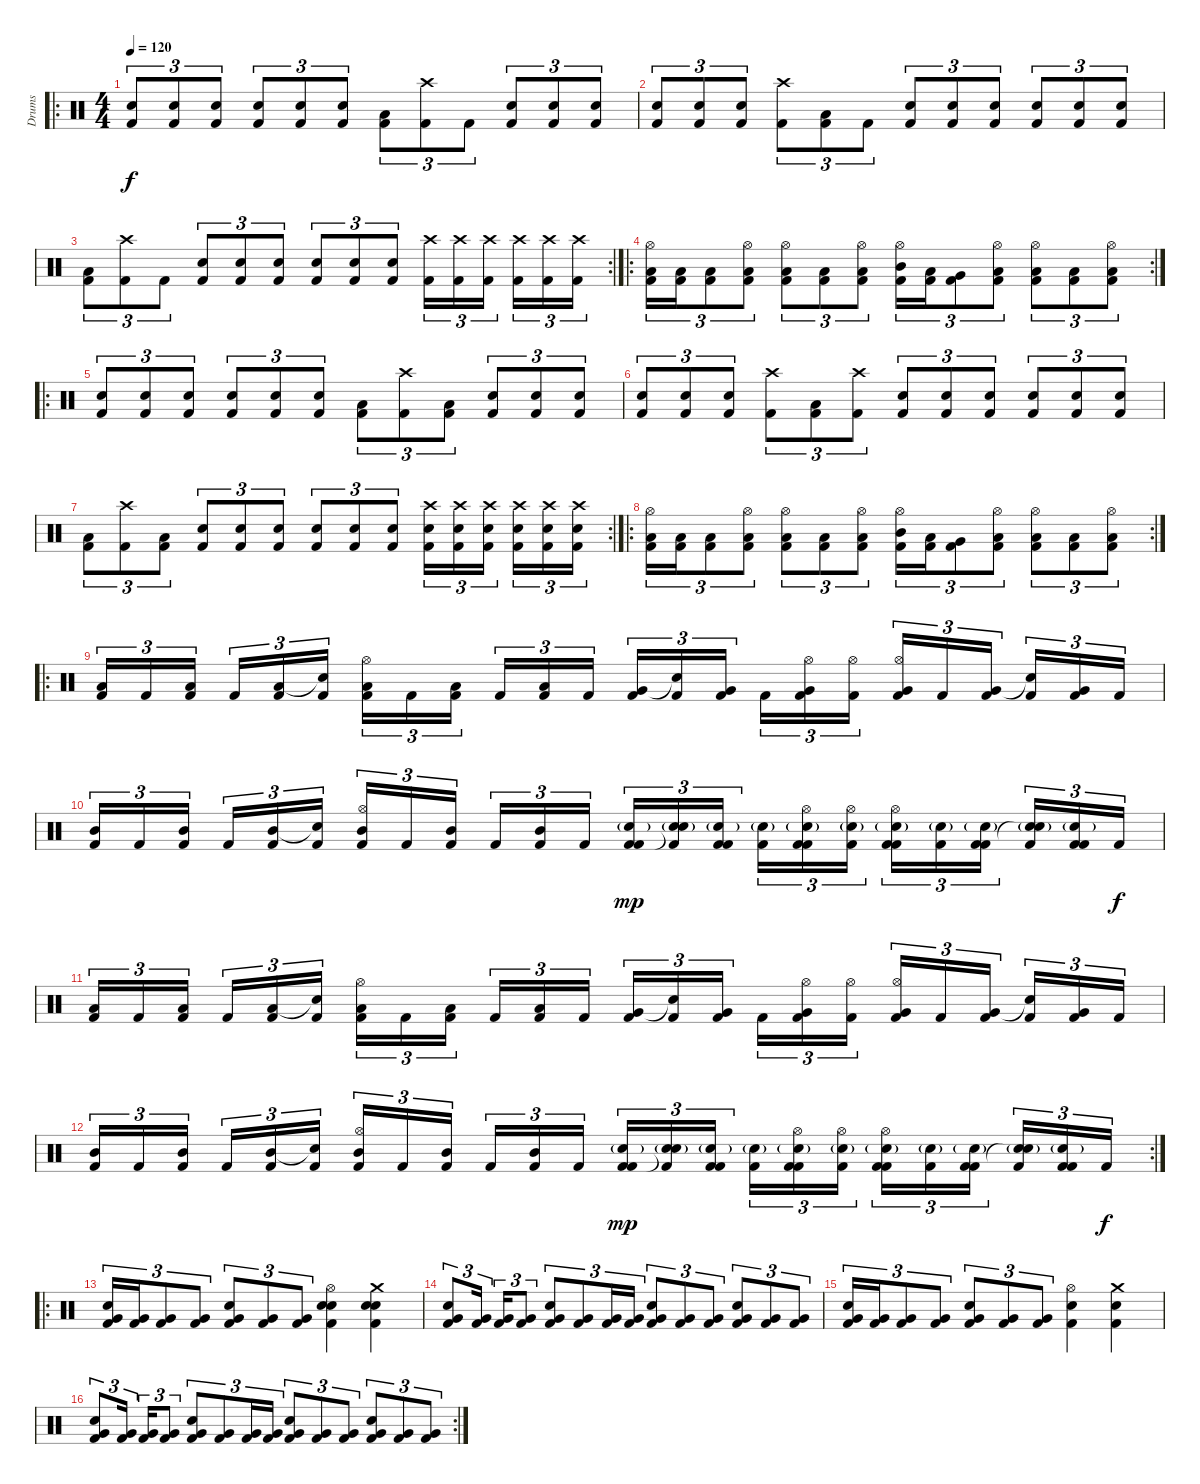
\track ("Drums" "Drums") {instrument percussion}
\staff {score}
\articulation defaults
\ro
\ts (4 4)
\tempo 120
\clef neutral
\ks c
("Snare (hit) 2" "Kick (hit) 2").8{tu (3 2) dy f} ("Snare (hit) 2" "Kick (hit) 2").8{tu (3 2)} ("Snare (hit) 2" "Kick (hit) 2").8{tu (3 2)} ("Snare (hit) 2" "Kick (hit) 2").8{tu (3 2)} ("Snare (hit) 2" "Kick (hit) 2").8{tu (3 2)} ("Snare (hit) 2" "Kick (hit) 2").8{tu (3 2)} ("Low Tom (hit)" "Kick (hit) 2").8{tu (3 2)} ("Crash high (hit)" "Kick (hit) 2").8{tu (3 2)} "Kick (hit) 2".8{tu (3 2)} ("Snare (hit) 2" "Kick (hit) 2").8{tu (3 2)} ("Snare (hit) 2" "Kick (hit) 2").8{tu (3 2)} ("Snare (hit) 2" "Kick (hit) 2").8{tu (3 2)} |
("Snare (hit) 2" "Kick (hit) 2").8{tu (3 2)} ("Snare (hit) 2" "Kick (hit) 2").8{tu (3 2)} ("Snare (hit) 2" "Kick (hit) 2").8{tu (3 2)} ("Crash high (hit)" "Kick (hit) 2").8{tu (3 2)} ("Low Tom (hit)" "Kick (hit) 2").8{tu (3 2)} "Kick (hit) 2".8{tu (3 2)} ("Snare (hit) 2" "Kick (hit) 2").8{tu (3 2)} ("Snare (hit) 2" "Kick (hit) 2").8{tu (3 2)} ("Snare (hit) 2" "Kick (hit) 2").8{tu (3 2)} ("Snare (hit) 2" "Kick (hit) 2").8{tu (3 2)} ("Snare (hit) 2" "Kick (hit) 2").8{tu (3 2)} ("Snare (hit) 2" "Kick (hit) 2").8{tu (3 2)} |
\rc 2
("Low Tom (hit)" "Kick (hit) 2").8{tu (3 2)} ("Crash high (hit)" "Kick (hit) 2").8{tu (3 2)} "Kick (hit) 2".8{tu (3 2)} ("Snare (hit) 2" "Kick (hit) 2").8{tu (3 2)} ("Snare (hit) 2" "Kick (hit) 2").8{tu (3 2)} ("Snare (hit) 2" "Kick (hit) 2").8{tu (3 2)} ("Snare (hit) 2" "Kick (hit) 2").8{tu (3 2)} ("Snare (hit) 2" "Kick (hit) 2").8{tu (3 2)} ("Snare (hit) 2" "Kick (hit) 2").8{tu (3 2)} ("Crash high (hit)" "Kick (hit) 2").16{tu (3 2)} ("Crash high (hit)" "Kick (hit) 2").16{tu (3 2)} ("Crash high (hit)" "Kick (hit) 2").16{tu (3 2)} ("Crash high (hit)" "Kick (hit) 2").16{tu (3 2)} ("Crash high (hit)" "Kick (hit) 2").16{tu (3 2)} ("Crash high (hit)" "Kick (hit) 2").16{tu (3 2)} |
\ro
\rc 2
("Low Tom (hit)" "Hi-Hat (open)" "Kick (hit) 2").16{tu (3 2)} ("Low Tom (hit)" "Kick (hit) 2").16{tu (3 2)} ("Low Tom (hit)" "Kick (hit) 2").8{tu (3 2)} ("Low Tom (hit)" "Hi-Hat (open)" "Kick (hit) 2").8{tu (3 2)} ("Low Tom (hit)" "Hi-Hat (open)" "Kick (hit) 2").8{tu (3 2)} ("Low Tom (hit)" "Kick (hit) 2").8{tu (3 2)} ("Low Tom (hit)" "Hi-Hat (open)" "Kick (hit) 2").8{tu (3 2)} ("Mid Tom (hit)" "Hi-Hat (open)" "Kick (hit) 2").16{tu (3 2)} ("Low Tom (hit)" "Kick (hit) 2").16{tu (3 2)} ("Very Low Tom (hit)" "Kick (hit) 2").8{tu (3 2)} ("Low Tom (hit)" "Hi-Hat (open)" "Kick (hit) 2").8{tu (3 2)} ("Low Tom (hit)" "Hi-Hat (open)" "Kick (hit) 2").8{tu (3 2)} ("Low Tom (hit)" "Kick (hit) 2").8{tu (3 2)} ("Low Tom (hit)" "Hi-Hat (open)" "Kick (hit) 2").8{tu (3 2)} |
\ro
("Snare (hit) 2" "Kick (hit) 2").8{tu (3 2)} ("Snare (hit) 2" "Kick (hit) 2").8{tu (3 2)} ("Snare (hit) 2" "Kick (hit) 2").8{tu (3 2)} ("Snare (hit) 2" "Kick (hit) 2").8{tu (3 2)} ("Snare (hit) 2" "Kick (hit) 2").8{tu (3 2)} ("Snare (hit) 2" "Kick (hit) 2").8{tu (3 2)} ("Low Tom (hit)" "Kick (hit) 2").8{tu (3 2)} ("Crash high (hit)" "Kick (hit) 2").8{tu (3 2)} ("Low Tom (hit)" "Kick (hit) 2").8{tu (3 2)} ("Snare (hit) 2" "Kick (hit) 2").8{tu (3 2)} ("Snare (hit) 2" "Kick (hit) 2").8{tu (3 2)} ("Snare (hit) 2" "Kick (hit) 2").8{tu (3 2)} |
("Snare (hit) 2" "Kick (hit) 2").8{tu (3 2)} ("Snare (hit) 2" "Kick (hit) 2").8{tu (3 2)} ("Snare (hit) 2" "Kick (hit) 2").8{tu (3 2)} ("Crash high (hit)" "Kick (hit) 2").8{tu (3 2)} ("Low Tom (hit)" "Kick (hit) 2").8{tu (3 2)} ("Crash high (hit)" "Kick (hit) 2").8{tu (3 2)} ("Snare (hit) 2" "Kick (hit) 2").8{tu (3 2)} ("Snare (hit) 2" "Kick (hit) 2").8{tu (3 2)} ("Snare (hit) 2" "Kick (hit) 2").8{tu (3 2)} ("Snare (hit) 2" "Kick (hit) 2").8{tu (3 2)} ("Snare (hit) 2" "Kick (hit) 2").8{tu (3 2)} ("Snare (hit) 2" "Kick (hit) 2").8{tu (3 2)} |
\rc 2
("Low Tom (hit)" "Kick (hit) 2").8{tu (3 2)} ("Crash high (hit)" "Kick (hit) 2").8{tu (3 2)} ("Low Tom (hit)" "Kick (hit) 2").8{tu (3 2)} ("Snare (hit) 2" "Kick (hit) 2").8{tu (3 2)} ("Snare (hit) 2" "Kick (hit) 2").8{tu (3 2)} ("Snare (hit) 2" "Kick (hit) 2").8{tu (3 2)} ("Snare (hit) 2" "Kick (hit) 2").8{tu (3 2)} ("Snare (hit) 2" "Kick (hit) 2").8{tu (3 2)} ("Snare (hit) 2" "Kick (hit) 2").8{tu (3 2)} ("Crash high (hit)" "Snare (hit) 2" "Kick (hit) 2").16{tu (3 2)} ("Crash high (hit)" "Snare (hit) 2" "Kick (hit) 2").16{tu (3 2)} ("Crash high (hit)" "Snare (hit) 2" "Kick (hit) 2").16{tu (3 2)} ("Crash high (hit)" "Snare (hit) 2" "Kick (hit) 2").16{tu (3 2)} ("Crash high (hit)" "Snare (hit) 2" "Kick (hit) 2").16{tu (3 2)} ("Crash high (hit)" "Snare (hit) 2" "Kick (hit) 2").16{tu (3 2)} |
\ro
\rc 2
("Low Tom (hit)" "Hi-Hat (open)" "Kick (hit) 2").16{tu (3 2)} ("Low Tom (hit)" "Kick (hit) 2").16{tu (3 2)} ("Low Tom (hit)" "Kick (hit) 2").8{tu (3 2)} ("Low Tom (hit)" "Hi-Hat (open)" "Kick (hit) 2").8{tu (3 2)} ("Low Tom (hit)" "Hi-Hat (open)" "Kick (hit) 2").8{tu (3 2)} ("Low Tom (hit)" "Kick (hit) 2").8{tu (3 2)} ("Low Tom (hit)" "Hi-Hat (open)" "Kick (hit) 2").8{tu (3 2)} ("Mid Tom (hit)" "Hi-Hat (open)" "Kick (hit) 2").16{tu (3 2)} ("Low Tom (hit)" "Kick (hit) 2").16{tu (3 2)} ("Very Low Tom (hit)" "Kick (hit) 2").8{tu (3 2)} ("Low Tom (hit)" "Hi-Hat (open)" "Kick (hit) 2").8{tu (3 2)} ("Low Tom (hit)" "Hi-Hat (open)" "Kick (hit) 2").8{tu (3 2)} ("Low Tom (hit)" "Kick (hit) 2").8{tu (3 2)} ("Low Tom (hit)" "Hi-Hat (open)" "Kick (hit) 2").8{tu (3 2)} |
\ro
("Low Tom (hit)" "Kick (hit) 2").16{tu (3 2)} "Kick (hit) 2".16{tu (3 2)} ("Low Tom (hit)" "Kick (hit) 2").16{tu (3 2)} "Kick (hit) 2".16{tu (3 2)} ("Low Tom (hit)" "Kick (hit) 2").16{tu (3 2)} ("Snare (hit) 2"{t} "Kick (hit) 2").16{tu (3 2)} ("Low Tom (hit)" "Hi-Hat (open)" "Kick (hit) 2").16{tu (3 2)} "Kick (hit) 2".16{tu (3 2)} ("Low Tom (hit)" "Kick (hit) 2").16{tu (3 2)} "Kick (hit) 2".16{tu (3 2)} ("Low Tom (hit)" "Kick (hit) 2").16{tu (3 2)} "Kick (hit) 2".16{tu (3 2)} ("Very Low Tom (hit)" "Kick (hit) 2").16{tu (3 2)} ("Snare (hit) 2"{t} "Kick (hit) 2").16{tu (3 2)} ("Very Low Tom (hit)" "Kick (hit) 2").16{tu (3 2)} "Kick (hit) 2".16{tu (3 2)} ("Very Low Tom (hit)" "Hi-Hat (open)" "Kick (hit) 2").16{tu (3 2)} ("Hi-Hat (open)" "Kick (hit) 2").16{tu (3 2)} ("Very Low Tom (hit)" "Hi-Hat (open)" "Kick (hit) 2").16{tu (3 2)} "Kick (hit) 2".16{tu (3 2)} ("Very Low Tom (hit)" "Kick (hit) 2").16{tu (3 2)} ("Snare (hit)"{t} "Kick (hit) 2").16{tu (3 2)} ("Very Low Tom (hit)" "Kick (hit) 2").16{tu (3 2)} "Kick (hit) 2".16{tu (3 2)} |
("Mid Tom (hit)" "Kick (hit) 2").16{tu (3 2)} "Kick (hit) 2".16{tu (3 2)} ("Mid Tom (hit)" "Kick (hit) 2").16{tu (3 2)} "Kick (hit) 2".16{tu (3 2)} ("Mid Tom (hit)" "Kick (hit) 2").16{tu (3 2)} ("Snare (hit) 2"{t} "Kick (hit) 2").16{tu (3 2)} ("Mid Tom (hit)" "Hi-Hat (open)" "Kick (hit) 2").16{tu (3 2)} "Kick (hit) 2".16{tu (3 2)} ("Mid Tom (hit)" "Kick (hit) 2").16{tu (3 2)} "Kick (hit) 2".16{tu (3 2)} ("Mid Tom (hit)" "Kick (hit) 2").16{tu (3 2)} "Kick (hit) 2".16{tu (3 2)} ("Kick (hit) 2" "Snare (hit) 2"{g} "Kick (hit) 2").16{tu (3 2) dy mp} ("Snare (hit) 2"{t} "Snare (hit) 2"{g} "Kick (hit) 2").16{tu (3 2)} ("Kick (hit) 2" "Snare (hit) 2"{g} "Kick (hit) 2").16{tu (3 2)} ("Snare (hit) 2"{g} "Kick (hit) 2").16{tu (3 2)} ("Kick (hit) 2" "Snare (hit) 2"{g} "Hi-Hat (open)" "Kick (hit) 2").16{tu (3 2)} ("Snare (hit) 2"{g} "Hi-Hat (open)" "Kick (hit) 2").16{tu (3 2)} ("Kick (hit) 2" "Snare (hit) 2"{g} "Hi-Hat (open)" "Kick (hit) 2").16{tu (3 2)} ("Snare (hit) 2"{g} "Kick (hit) 2").16{tu (3 2)} ("Kick (hit) 2" "Snare (hit) 2"{g} "Kick (hit) 2").16{tu (3 2)} ("Snare (hit) 2"{t} "Snare (hit) 2"{g} "Kick (hit) 2").16{tu (3 2)} ("Kick (hit) 2" "Snare (hit) 2"{g} "Kick (hit) 2").16{tu (3 2)} "Kick (hit) 2".16{tu (3 2) dy f} |
("Low Tom (hit)" "Kick (hit) 2").16{tu (3 2)} "Kick (hit) 2".16{tu (3 2)} ("Low Tom (hit)" "Kick (hit) 2").16{tu (3 2)} "Kick (hit) 2".16{tu (3 2)} ("Low Tom (hit)" "Kick (hit) 2").16{tu (3 2)} ("Snare (hit) 2"{t} "Kick (hit) 2").16{tu (3 2)} ("Low Tom (hit)" "Hi-Hat (open)" "Kick (hit) 2").16{tu (3 2)} "Kick (hit) 2".16{tu (3 2)} ("Low Tom (hit)" "Kick (hit) 2").16{tu (3 2)} "Kick (hit) 2".16{tu (3 2)} ("Low Tom (hit)" "Kick (hit) 2").16{tu (3 2)} "Kick (hit) 2".16{tu (3 2)} ("Very Low Tom (hit)" "Kick (hit) 2").16{tu (3 2)} ("Snare (hit) 2"{t} "Kick (hit) 2").16{tu (3 2)} ("Very Low Tom (hit)" "Kick (hit) 2").16{tu (3 2)} "Kick (hit) 2".16{tu (3 2)} ("Very Low Tom (hit)" "Hi-Hat (open)" "Kick (hit) 2").16{tu (3 2)} ("Hi-Hat (open)" "Kick (hit) 2").16{tu (3 2)} ("Very Low Tom (hit)" "Hi-Hat (open)" "Kick (hit) 2").16{tu (3 2)} "Kick (hit) 2".16{tu (3 2)} ("Very Low Tom (hit)" "Kick (hit) 2").16{tu (3 2)} ("Snare (hit)"{t} "Kick (hit) 2").16{tu (3 2)} ("Very Low Tom (hit)" "Kick (hit) 2").16{tu (3 2)} "Kick (hit) 2".16{tu (3 2)} |
\rc 2
("Mid Tom (hit)" "Kick (hit) 2").16{tu (3 2)} "Kick (hit) 2".16{tu (3 2)} ("Mid Tom (hit)" "Kick (hit) 2").16{tu (3 2)} "Kick (hit) 2".16{tu (3 2)} ("Mid Tom (hit)" "Kick (hit) 2").16{tu (3 2)} ("Snare (hit) 2"{t} "Kick (hit) 2").16{tu (3 2)} ("Mid Tom (hit)" "Hi-Hat (open)" "Kick (hit) 2").16{tu (3 2)} "Kick (hit) 2".16{tu (3 2)} ("Mid Tom (hit)" "Kick (hit) 2").16{tu (3 2)} "Kick (hit) 2".16{tu (3 2)} ("Mid Tom (hit)" "Kick (hit) 2").16{tu (3 2)} "Kick (hit) 2".16{tu (3 2)} ("Kick (hit) 2" "Snare (hit) 2"{g} "Kick (hit) 2").16{tu (3 2) dy mp} ("Snare (hit) 2"{t} "Snare (hit) 2"{g} "Kick (hit) 2").16{tu (3 2)} ("Kick (hit) 2" "Snare (hit) 2"{g} "Kick (hit) 2").16{tu (3 2)} ("Snare (hit) 2"{g} "Kick (hit) 2").16{tu (3 2)} ("Kick (hit) 2" "Snare (hit) 2"{g} "Hi-Hat (open)" "Kick (hit) 2").16{tu (3 2)} ("Snare (hit) 2"{g} "Hi-Hat (open)" "Kick (hit) 2").16{tu (3 2)} ("Kick (hit) 2" "Snare (hit) 2"{g} "Hi-Hat (open)" "Kick (hit) 2").16{tu (3 2)} ("Snare (hit) 2"{g} "Kick (hit) 2").16{tu (3 2)} ("Kick (hit) 2" "Snare (hit) 2"{g} "Kick (hit) 2").16{tu (3 2)} ("Snare (hit) 2"{t} "Snare (hit) 2"{g} "Kick (hit) 2").16{tu (3 2)} ("Kick (hit) 2" "Snare (hit) 2"{g} "Kick (hit) 2").16{tu (3 2)} "Kick (hit) 2".16{tu (3 2) dy f} |
\ro
("Very Low Tom (hit)" "Snare (hit) 2" "Kick (hit) 2").16{tu (3 2)} ("Very Low Tom (hit)" "Kick (hit) 2").16{tu (3 2)} ("Very Low Tom (hit)" "Kick (hit) 2").8{tu (3 2)} ("Very Low Tom (hit)" "Kick (hit) 2").8{tu (3 2)} ("Very Low Tom (hit)" "Snare (hit) 2" "Kick (hit) 2").8{tu (3 2)} ("Very Low Tom (hit)" "Kick (hit) 2").8{tu (3 2)} ("Very Low Tom (hit)" "Kick (hit) 2").8{tu (3 2)} ("Hi-Hat (open)" "Snare (hit) 2" "Electric Snare (hit)" "Kick (hit) 2").4 ("Crash medium (hit)" "Snare (hit) 2" "Electric Snare (hit)" "Kick (hit) 2").4 |
("Very Low Tom (hit)" "Snare (hit) 2" "Kick (hit) 2").8{tu (3 2)} ("Very Low Tom (hit)" "Kick (hit) 2").16{tu (3 2)} ("Very Low Tom (hit)" "Kick (hit) 2").16{tu (3 2)} ("Very Low Tom (hit)" "Kick (hit) 2").8{tu (3 2)} ("Very Low Tom (hit)" "Snare (hit) 2" "Kick (hit) 2").8{tu (3 2)} ("Very Low Tom (hit)" "Kick (hit) 2").8{tu (3 2)} ("Very Low Tom (hit)" "Kick (hit) 2").16{tu (3 2)} ("Very Low Tom (hit)" "Kick (hit) 2").16{tu (3 2)} ("Very Low Tom (hit)" "Snare (hit) 2" "Kick (hit) 2").8{tu (3 2)} ("Very Low Tom (hit)" "Kick (hit) 2").8{tu (3 2)} ("Very Low Tom (hit)" "Kick (hit) 2").8{tu (3 2)} ("Very Low Tom (hit)" "Snare (hit) 2" "Kick (hit) 2").8{tu (3 2)} ("Very Low Tom (hit)" "Kick (hit) 2").8{tu (3 2)} ("Very Low Tom (hit)" "Kick (hit) 2").8{tu (3 2)} |
("Very Low Tom (hit)" "Snare (hit) 2" "Kick (hit) 2").16{tu (3 2)} ("Very Low Tom (hit)" "Kick (hit) 2").16{tu (3 2)} ("Very Low Tom (hit)" "Kick (hit) 2").8{tu (3 2)} ("Very Low Tom (hit)" "Kick (hit) 2").8{tu (3 2)} ("Very Low Tom (hit)" "Snare (hit) 2" "Kick (hit) 2").8{tu (3 2)} ("Very Low Tom (hit)" "Kick (hit) 2").8{tu (3 2)} ("Very Low Tom (hit)" "Kick (hit) 2").8{tu (3 2)} ("Hi-Hat (open)" "Snare (hit) 2" "Kick (hit) 2").4 ("Crash medium (hit)" "Snare (hit) 2" "Kick (hit) 2").4 |
\rc 2
("Very Low Tom (hit)" "Snare (hit) 2" "Kick (hit) 2").8{tu (3 2)} ("Very Low Tom (hit)" "Kick (hit) 2").16{tu (3 2)} ("Very Low Tom (hit)" "Kick (hit) 2").16{tu (3 2)} ("Very Low Tom (hit)" "Kick (hit) 2").8{tu (3 2)} ("Very Low Tom (hit)" "Snare (hit) 2" "Kick (hit) 2").8{tu (3 2)} ("Very Low Tom (hit)" "Kick (hit) 2").8{tu (3 2)} ("Very Low Tom (hit)" "Kick (hit) 2").16{tu (3 2)} ("Very Low Tom (hit)" "Kick (hit) 2").16{tu (3 2)} ("Very Low Tom (hit)" "Snare (hit) 2" "Kick (hit) 2").8{tu (3 2)} ("Very Low Tom (hit)" "Kick (hit) 2").8{tu (3 2)} ("Very Low Tom (hit)" "Kick (hit) 2").8{tu (3 2)} ("Very Low Tom (hit)" "Snare (hit) 2" "Kick (hit) 2").8{tu (3 2)} ("Very Low Tom (hit)" "Kick (hit) 2").8{tu (3 2)} ("Very Low Tom (hit)" "Kick (hit) 2").8{tu (3 2)}
